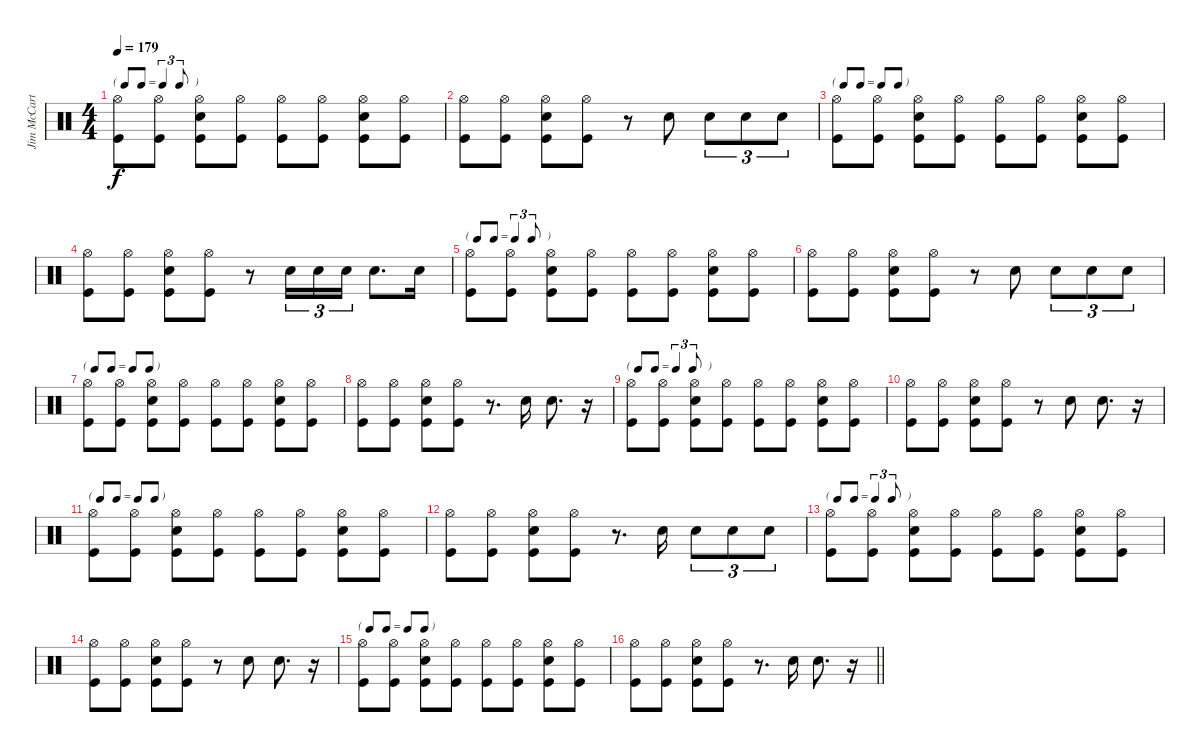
\track ("Jim McCarty" "Jim McCart") {instrument percussion}
\staff {score}
\articulation defaults
\ts (4 4)
\tf triplet8th
\tempo 179
\clef neutral
\ks c
("Hi-Hat (open)" "Kick (hit)").8{dy f} ("Hi-Hat (open)" "Kick (hit)").8 ("Hi-Hat (open)" "Snare (hit) 2" "Kick (hit)").8 ("Hi-Hat (open)" "Kick (hit)").8 ("Hi-Hat (open)" "Kick (hit)").8 ("Hi-Hat (open)" "Kick (hit)").8 ("Hi-Hat (open)" "Snare (hit) 2" "Kick (hit)").8 ("Hi-Hat (open)" "Kick (hit)").8 |
("Hi-Hat (open)" "Kick (hit)").8 ("Hi-Hat (open)" "Kick (hit)").8 ("Hi-Hat (open)" "Snare (hit) 2" "Kick (hit)").8 ("Hi-Hat (open)" "Kick (hit)").8 r.8 "Snare (hit) 2".8 "Snare (hit) 2".8{tu (3 2)} "Snare (hit) 2".8{tu (3 2)} "Snare (hit) 2".8{tu (3 2)} |
\tf none
("Hi-Hat (open)" "Kick (hit)").8 ("Hi-Hat (open)" "Kick (hit)").8 ("Hi-Hat (open)" "Snare (hit) 2" "Kick (hit)").8 ("Hi-Hat (open)" "Kick (hit)").8 ("Hi-Hat (open)" "Kick (hit)").8 ("Hi-Hat (open)" "Kick (hit)").8 ("Hi-Hat (open)" "Snare (hit) 2" "Kick (hit)").8 ("Hi-Hat (open)" "Kick (hit)").8 |
("Hi-Hat (open)" "Kick (hit)").8 ("Hi-Hat (open)" "Kick (hit)").8 ("Hi-Hat (open)" "Snare (hit) 2" "Kick (hit)").8 ("Hi-Hat (open)" "Kick (hit)").8 r.8 "Snare (hit) 2".16{tu (3 2)} "Snare (hit) 2".16{tu (3 2)} "Snare (hit) 2".16{tu (3 2)} "Snare (hit) 2".8{d} "Snare (hit) 2".16 |
\tf triplet8th
("Hi-Hat (open)" "Kick (hit)").8 ("Hi-Hat (open)" "Kick (hit)").8 ("Hi-Hat (open)" "Snare (hit) 2" "Kick (hit)").8 ("Hi-Hat (open)" "Kick (hit)").8 ("Hi-Hat (open)" "Kick (hit)").8 ("Hi-Hat (open)" "Kick (hit)").8 ("Hi-Hat (open)" "Snare (hit) 2" "Kick (hit)").8 ("Hi-Hat (open)" "Kick (hit)").8 |
("Hi-Hat (open)" "Kick (hit)").8 ("Hi-Hat (open)" "Kick (hit)").8 ("Hi-Hat (open)" "Snare (hit) 2" "Kick (hit)").8 ("Hi-Hat (open)" "Kick (hit)").8 r.8 "Snare (hit) 2".8 "Snare (hit) 2".8{tu (3 2)} "Snare (hit) 2".8{tu (3 2)} "Snare (hit) 2".8{tu (3 2)} |
\tf none
("Hi-Hat (open)" "Kick (hit)").8 ("Hi-Hat (open)" "Kick (hit)").8 ("Hi-Hat (open)" "Snare (hit) 2" "Kick (hit)").8 ("Hi-Hat (open)" "Kick (hit)").8 ("Hi-Hat (open)" "Kick (hit)").8 ("Hi-Hat (open)" "Kick (hit)").8 ("Hi-Hat (open)" "Snare (hit) 2" "Kick (hit)").8 ("Hi-Hat (open)" "Kick (hit)").8 |
("Hi-Hat (open)" "Kick (hit)").8 ("Hi-Hat (open)" "Kick (hit)").8 ("Hi-Hat (open)" "Snare (hit) 2" "Kick (hit)").8 ("Hi-Hat (open)" "Kick (hit)").8 r.8{d} "Snare (hit) 2".16 "Snare (hit) 2".8{d} r.16 |
\tf triplet8th
("Hi-Hat (open)" "Kick (hit)").8 ("Hi-Hat (open)" "Kick (hit)").8 ("Hi-Hat (open)" "Snare (hit) 2" "Kick (hit)").8 ("Hi-Hat (open)" "Kick (hit)").8 ("Hi-Hat (open)" "Kick (hit)").8 ("Hi-Hat (open)" "Kick (hit)").8 ("Hi-Hat (open)" "Snare (hit) 2" "Kick (hit)").8 ("Hi-Hat (open)" "Kick (hit)").8 |
("Hi-Hat (open)" "Kick (hit)").8 ("Hi-Hat (open)" "Kick (hit)").8 ("Hi-Hat (open)" "Snare (hit) 2" "Kick (hit)").8 ("Hi-Hat (open)" "Kick (hit)").8 r.8 "Snare (hit) 2".8 "Snare (hit) 2".8{d} r.16 |
\tf none
("Hi-Hat (open)" "Kick (hit)").8 ("Hi-Hat (open)" "Kick (hit)").8 ("Hi-Hat (open)" "Snare (hit) 2" "Kick (hit)").8 ("Hi-Hat (open)" "Kick (hit)").8 ("Hi-Hat (open)" "Kick (hit)").8 ("Hi-Hat (open)" "Kick (hit)").8 ("Hi-Hat (open)" "Snare (hit) 2" "Kick (hit)").8 ("Hi-Hat (open)" "Kick (hit)").8 |
("Hi-Hat (open)" "Kick (hit)").8 ("Hi-Hat (open)" "Kick (hit)").8 ("Hi-Hat (open)" "Snare (hit) 2" "Kick (hit)").8 ("Hi-Hat (open)" "Kick (hit)").8 r.8{d} "Snare (hit) 2".16 "Snare (hit) 2".8{tu (3 2)} "Snare (hit) 2".8{tu (3 2)} "Snare (hit) 2".8{tu (3 2)} |
\tf triplet8th
("Hi-Hat (open)" "Kick (hit)").8 ("Hi-Hat (open)" "Kick (hit)").8 ("Hi-Hat (open)" "Snare (hit) 2" "Kick (hit)").8 ("Hi-Hat (open)" "Kick (hit)").8 ("Hi-Hat (open)" "Kick (hit)").8 ("Hi-Hat (open)" "Kick (hit)").8 ("Hi-Hat (open)" "Snare (hit) 2" "Kick (hit)").8 ("Hi-Hat (open)" "Kick (hit)").8 |
("Hi-Hat (open)" "Kick (hit)").8 ("Hi-Hat (open)" "Kick (hit)").8 ("Hi-Hat (open)" "Snare (hit) 2" "Kick (hit)").8 ("Hi-Hat (open)" "Kick (hit)").8 r.8 "Snare (hit) 2".8 "Snare (hit) 2".8{d} r.16 |
\tf none
("Hi-Hat (open)" "Kick (hit)").8 ("Hi-Hat (open)" "Kick (hit)").8 ("Hi-Hat (open)" "Snare (hit) 2" "Kick (hit)").8 ("Hi-Hat (open)" "Kick (hit)").8 ("Hi-Hat (open)" "Kick (hit)").8 ("Hi-Hat (open)" "Kick (hit)").8 ("Hi-Hat (open)" "Snare (hit) 2" "Kick (hit)").8 ("Hi-Hat (open)" "Kick (hit)").8 |
\barLineRight lightlight
("Hi-Hat (open)" "Kick (hit)").8 ("Hi-Hat (open)" "Kick (hit)").8 ("Hi-Hat (open)" "Snare (hit) 2" "Kick (hit)").8 ("Hi-Hat (open)" "Kick (hit)").8 r.8{d} "Snare (hit) 2".16 "Snare (hit) 2".8{d} r.16
